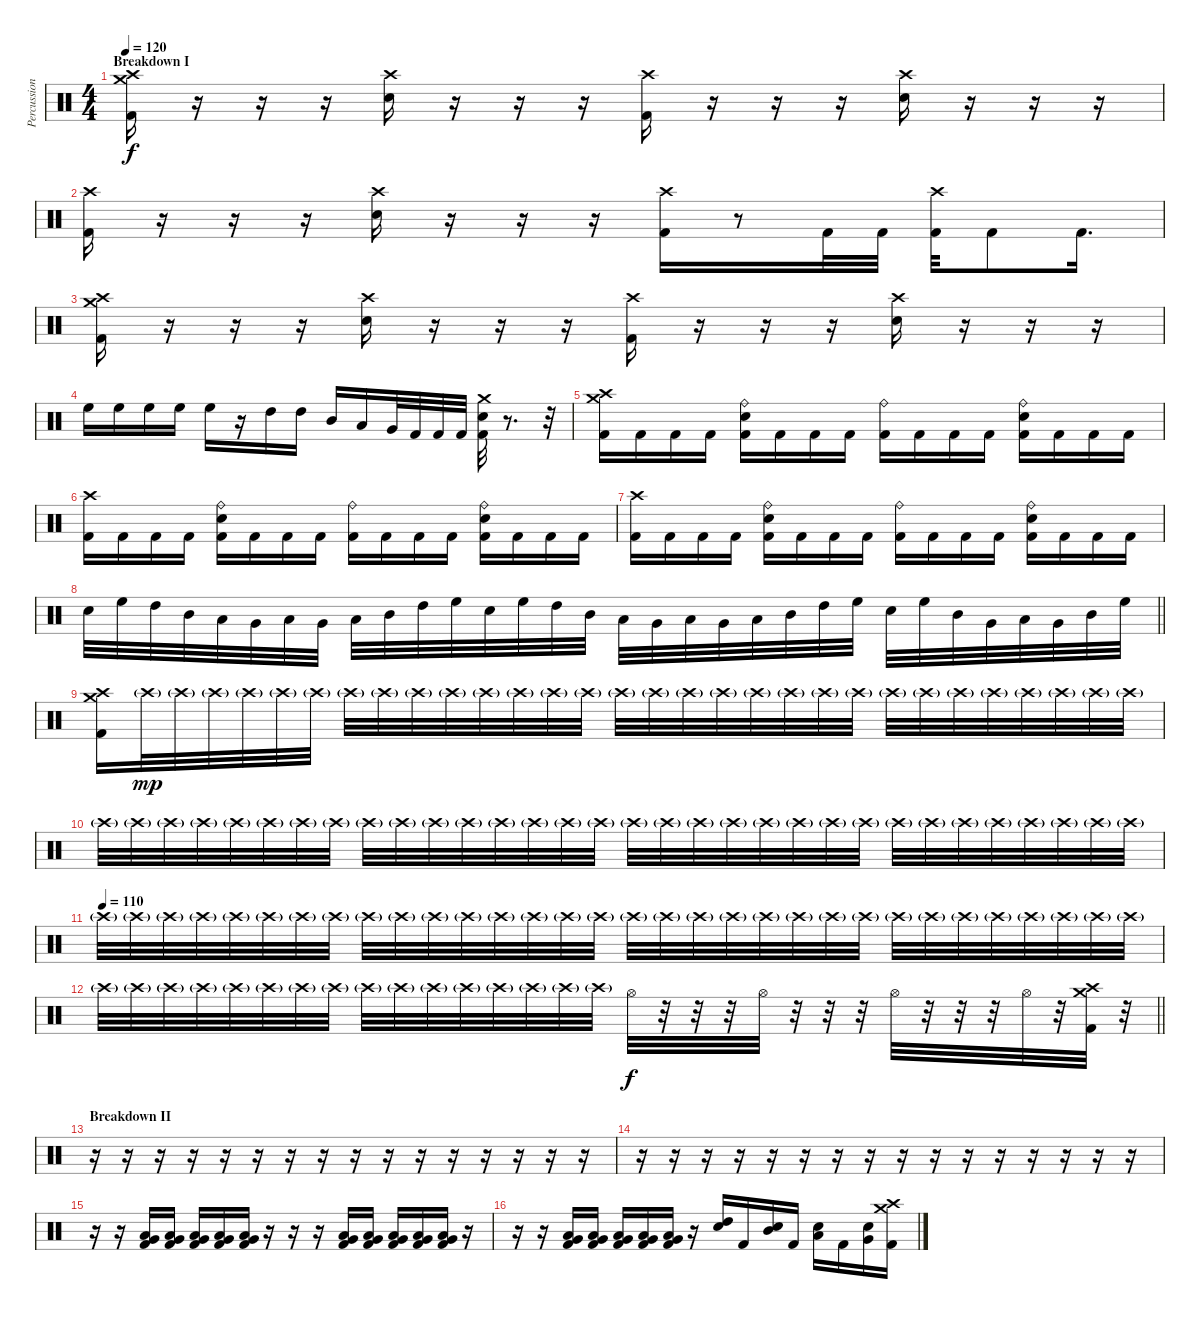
\track ("Percussion" "Percussion") {instrument percussion}
\staff {score}
\articulation defaults
\ts (4 4)
\section ("" "Breakdown I")
\tempo 120
\clef neutral
\ks c
("Crash medium (hit)" "Crash high (hit)" "Kick (hit) 2").16{dy f} r.16 r.16 r.16 ("Crash high (hit)" "Electric Snare (hit)").16 r.16 r.16 r.16 ("Crash high (hit)" "Kick (hit) 2").16 r.16 r.16 r.16 ("Crash high (hit)" "Electric Snare (hit)").16 r.16 r.16 r.16 |
("Crash high (hit)" "Kick (hit) 2").16 r.16 r.16 r.16 ("Crash high (hit)" "Electric Snare (hit)").16 r.16 r.16 r.16 ("Crash high (hit)" "Kick (hit) 2").16 r.8 "Kick (hit) 2".32 "Kick (hit) 2".32 ("Crash high (hit)" "Kick (hit) 2").32 "Kick (hit) 2".8 "Kick (hit) 2".16{d} |
("Crash medium (hit)" "Crash high (hit)" "Kick (hit) 2").16 r.16 r.16 r.16 ("Crash high (hit)" "Electric Snare (hit)").16 r.16 r.16 r.16 ("Crash high (hit)" "Kick (hit) 2").16 r.16 r.16 r.16 ("Crash high (hit)" "Electric Snare (hit)").16 r.16 r.16 r.16 |
"High Floor Tom (hit)".16 "High Floor Tom (hit)".16 "High Floor Tom (hit)".16 "High Floor Tom (hit)".16 "High Floor Tom (hit)".16 r.16 "High Tom (hit)".16 "High Tom (hit)".16 "Mid Tom (hit)".16 "Low Tom (hit)".16 "Very Low Tom (hit)".32 "Kick (hit) 2".32 "Kick (hit) 2".32 "Kick (hit) 2".32 ("Crash medium (hit)" "Electric Snare (hit)" "Kick (hit) 2").32 r.8{d} r.32 |
("Crash medium (hit)" "Crash high (hit)" "Kick (hit) 2").16 "Kick (hit) 2".16 "Kick (hit) 2".16 "Kick (hit) 2".16 ("Ride (bell)" "Electric Snare (hit)" "Kick (hit) 2").16 "Kick (hit) 2".16 "Kick (hit) 2".16 "Kick (hit) 2".16 ("Ride (bell)" "Kick (hit) 2").16 "Kick (hit) 2".16 "Kick (hit) 2".16 "Kick (hit) 2".16 ("Ride (bell)" "Electric Snare (hit)" "Kick (hit) 2").16 "Kick (hit) 2".16 "Kick (hit) 2".16 "Kick (hit) 2".16 |
("Crash high (hit)" "Kick (hit) 2").16 "Kick (hit) 2".16 "Kick (hit) 2".16 "Kick (hit) 2".16 ("Ride (bell)" "Electric Snare (hit)" "Kick (hit) 2").16 "Kick (hit) 2".16 "Kick (hit) 2".16 "Kick (hit) 2".16 ("Ride (bell)" "Kick (hit) 2").16 "Kick (hit) 2".16 "Kick (hit) 2".16 "Kick (hit) 2".16 ("Ride (bell)" "Electric Snare (hit)" "Kick (hit) 2").16 "Kick (hit) 2".16 "Kick (hit) 2".16 "Kick (hit) 2".16 |
("Crash high (hit)" "Kick (hit) 2").16 "Kick (hit) 2".16 "Kick (hit) 2".16 "Kick (hit) 2".16 ("Ride (bell)" "Electric Snare (hit)" "Kick (hit) 2").16 "Kick (hit) 2".16 "Kick (hit) 2".16 "Kick (hit) 2".16 ("Ride (bell)" "Kick (hit) 2").16 "Kick (hit) 2".16 "Kick (hit) 2".16 "Kick (hit) 2".16 ("Ride (bell)" "Electric Snare (hit)" "Kick (hit) 2").16 "Kick (hit) 2".16 "Kick (hit) 2".16 "Kick (hit) 2".16 |
\barLineRight lightlight "Electric Snare (hit)".32 "High Floor Tom (hit)".32 "High Tom (hit)".32 "Mid Tom (hit)".32 "Low Tom (hit)".32 "Very Low Tom (hit)".32 "Low Floor Tom (hit)".32 "Very Low Tom (hit)".32 "Low Tom (hit)".32 "Mid Tom (hit)".32 "High Tom (hit)".32 "High Floor Tom (hit)".32 "Electric Snare (hit)".32 "High Floor Tom (hit)".32 "High Tom (hit)".32 "Mid Tom (hit)".32 "Low Tom (hit)".32 "Very Low Tom (hit)".32 "Low Floor Tom (hit)".32 "Very Low Tom (hit)".32 "Low Tom (hit)".32 "Mid Tom (hit)".32 "High Tom (hit)".32 "High Floor Tom (hit)".32 "Electric Snare (hit)".32 "High Floor Tom (hit)".32 "Mid Tom (hit)".32 "Very Low Tom (hit)".32 "Low Floor Tom (hit)".32 "Very Low Tom (hit)".32 "Mid Tom (hit)".32 "High Floor Tom (hit)".32
|
("Crash medium (hit)" "Crash high (hit)" "Kick (hit) 2").16{volume 9} "Crash high (hit)"{g}.32{dy mp} "Crash high (hit)"{g}.32 "Crash high (hit)"{g}.32 "Crash high (hit)"{g}.32 "Crash high (hit)"{g}.32 "Crash high (hit)"{g}.32 "Crash high (hit)"{g}.32 "Crash high (hit)"{g}.32 "Crash high (hit)"{g}.32 "Crash high (hit)"{g}.32 "Crash high (hit)"{g}.32 "Crash high (hit)"{g}.32 "Crash high (hit)"{g}.32 "Crash high (hit)"{g}.32 "Crash high (hit)"{g}.32 "Crash high (hit)"{g}.32 "Crash high (hit)"{g}.32 "Crash high (hit)"{g}.32 "Crash high (hit)"{g}.32 "Crash high (hit)"{g}.32 "Crash high (hit)"{g}.32 "Crash high (hit)"{g}.32 "Crash high (hit)"{g}.32 "Crash high (hit)"{g}.32 "Crash high (hit)"{g}.32 "Crash high (hit)"{g}.32 "Crash high (hit)"{g}.32 "Crash high (hit)"{g}.32 "Crash high (hit)"{g}.32 "Crash high (hit)"{g}.32 |
"Crash high (hit)"{g}.32{volume 16} "Crash high (hit)"{g}.32 "Crash high (hit)"{g}.32 "Crash high (hit)"{g}.32 "Crash high (hit)"{g}.32 "Crash high (hit)"{g}.32 "Crash high (hit)"{g}.32 "Crash high (hit)"{g}.32 "Crash high (hit)"{g}.32 "Crash high (hit)"{g}.32 "Crash high (hit)"{g}.32 "Crash high (hit)"{g}.32 "Crash high (hit)"{g}.32 "Crash high (hit)"{g}.32 "Crash high (hit)"{g}.32 "Crash high (hit)"{g}.32 "Crash high (hit)"{g}.32 "Crash high (hit)"{g}.32 "Crash high (hit)"{g}.32 "Crash high (hit)"{g}.32 "Crash high (hit)"{g}.32 "Crash high (hit)"{g}.32 "Crash high (hit)"{g}.32 "Crash high (hit)"{g}.32 "Crash high (hit)"{g}.32 "Crash high (hit)"{g}.32 "Crash high (hit)"{g}.32 "Crash high (hit)"{g}.32 "Crash high (hit)"{g}.32 "Crash high (hit)"{g}.32 "Crash high (hit)"{g}.32 "Crash high (hit)"{g}.32 |
\tempo (110)
"Crash high (hit)"{g}.32 "Crash high (hit)"{g}.32 "Crash high (hit)"{g}.32 "Crash high (hit)"{g}.32 "Crash high (hit)"{g}.32 "Crash high (hit)"{g}.32 "Crash high (hit)"{g}.32 "Crash high (hit)"{g}.32 "Crash high (hit)"{g}.32 "Crash high (hit)"{g}.32 "Crash high (hit)"{g}.32 "Crash high (hit)"{g}.32 "Crash high (hit)"{g}.32 "Crash high (hit)"{g}.32 "Crash high (hit)"{g}.32 "Crash high (hit)"{g}.32 "Crash high (hit)"{g}.32 "Crash high (hit)"{g}.32 "Crash high (hit)"{g}.32 "Crash high (hit)"{g}.32 "Crash high (hit)"{g}.32 "Crash high (hit)"{g}.32 "Crash high (hit)"{g}.32 "Crash high (hit)"{g}.32 "Crash high (hit)"{g}.32 "Crash high (hit)"{g}.32 "Crash high (hit)"{g}.32 "Crash high (hit)"{g}.32 "Crash high (hit)"{g}.32 "Crash high (hit)"{g}.32 "Crash high (hit)"{g}.32 "Crash high (hit)"{g}.32 |
\barLineRight lightlight "Crash high (hit)"{g}.32 "Crash high (hit)"{g}.32 "Crash high (hit)"{g}.32 "Crash high (hit)"{g}.32 "Crash high (hit)"{g}.32 "Crash high (hit)"{g}.32 "Crash high (hit)"{g}.32 "Crash high (hit)"{g}.32 "Crash high (hit)"{g}.32 "Crash high (hit)"{g}.32 "Crash high (hit)"{g}.32 "Crash high (hit)"{g}.32 "Crash high (hit)"{g}.32 "Crash high (hit)"{g}.32 "Crash high (hit)"{g}.32 "Crash high (hit)"{g}.32 "Hi-Hat (open)".32{dy f}
r.32 r.32 r.32 "Hi-Hat (open)".32 r.32 r.32 r.32 "Hi-Hat (open)".32 r.32 r.32 r.32 "Hi-Hat (open)".32 r.32 ("Crash medium (hit)" "Crash high (hit)" "Kick (hit) 2").32 r.32 |
\section ("" "Breakdown II")
r.16 r.16 r.16 r.16 r.16 r.16 r.16 r.16 r.16 r.16 r.16 r.16 r.16 r.16 r.16 r.16 |
r.16 r.16 r.16 r.16 r.16 r.16 r.16 r.16 r.16 r.16 r.16 r.16 r.16 r.16 r.16 r.16 |
r.16 r.16 ("Very Low Tom (hit)" "Low Floor Tom (hit)" "Kick (hit) 2").16 ("Very Low Tom (hit)" "Low Floor Tom (hit)" "Kick (hit) 2").16 ("Very Low Tom (hit)" "Low Floor Tom (hit)" "Kick (hit) 2").16 ("Very Low Tom (hit)" "Low Floor Tom (hit)" "Kick (hit) 2").16 ("Very Low Tom (hit)" "Low Floor Tom (hit)" "Kick (hit) 2").16 r.16 r.16 r.16 ("Very Low Tom (hit)" "Low Floor Tom (hit)" "Kick (hit) 2").16 ("Very Low Tom (hit)" "Low Floor Tom (hit)" "Kick (hit) 2").16 ("Very Low Tom (hit)" "Low Floor Tom (hit)" "Kick (hit) 2").16 ("Very Low Tom (hit)" "Low Floor Tom (hit)" "Kick (hit) 2").16 ("Very Low Tom (hit)" "Low Floor Tom (hit)" "Kick (hit) 2").16 r.16 |
r.16 r.16 ("Very Low Tom (hit)" "Low Floor Tom (hit)" "Kick (hit) 2").16 ("Very Low Tom (hit)" "Low Floor Tom (hit)" "Kick (hit) 2").16 ("Very Low Tom (hit)" "Low Floor Tom (hit)" "Kick (hit) 2").16 ("Very Low Tom (hit)" "Low Floor Tom (hit)" "Kick (hit) 2").16 ("Very Low Tom (hit)" "Low Floor Tom (hit)" "Kick (hit) 2").16 r.16 ("High Tom (hit)" "Electric Snare (hit)").16 "Kick (hit) 2".16 ("Mid Tom (hit)" "Electric Snare (hit)").16 "Kick (hit) 2".16 ("Low Tom (hit)" "Electric Snare (hit)").16 "Kick (hit) 2".16 ("Very Low Tom (hit)" "Electric Snare (hit)").16 ("Crash medium (hit)" "Crash high (hit)" "Kick (hit) 2").16
